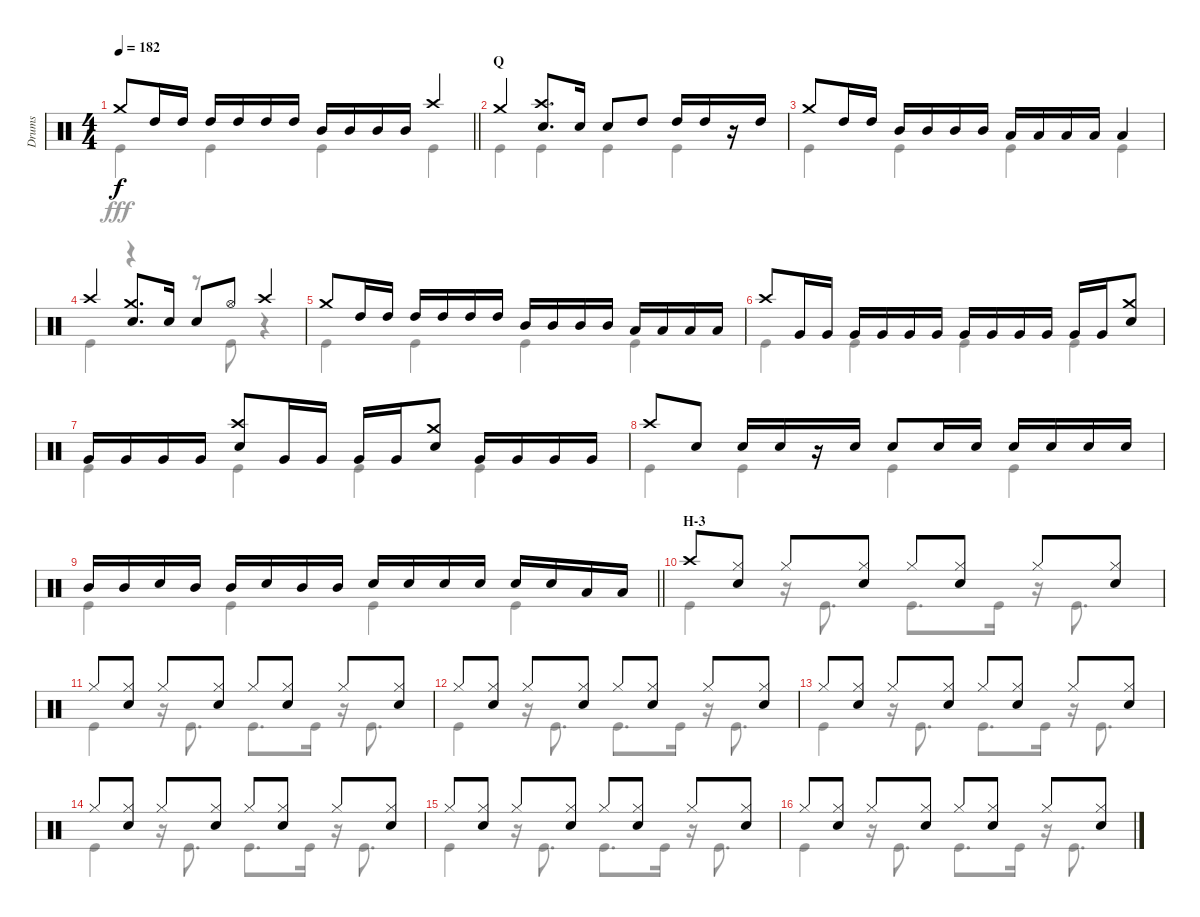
\track ("Drums" "Drums") {instrument percussion}
\staff {score}
\articulation defaults
\voice
\ts (4 4)
\tempo 182
\clef neutral
\barLineRight lightlight
\ks c "Crash medium (hit)".8{dy f} "High Tom (hit)".16 "High Tom (hit)".16 "High Tom (hit)".16 "High Tom (hit)".16 "High Tom (hit)".16 "High Tom (hit)".16 "Mid Tom (hit)".16 "Mid Tom (hit)".16 "Mid Tom (hit)".16 "Mid Tom (hit)".16 "Crash high (hit)".4
|
\section ("" "Q")
"Crash medium (hit)".4 ("Crash high (hit)" "Snare (hit) 2").8{d} "Snare (hit) 2".16 "Snare (hit) 2".8 "High Tom (hit)".8 "High Tom (hit)".16 "High Tom (hit)".16 r.16 "High Tom (hit)".16 |
"Crash medium (hit)".8 "High Tom (hit)".16 "High Tom (hit)".16 "Mid Tom (hit)".16 "Mid Tom (hit)".16 "Mid Tom (hit)".16 "Mid Tom (hit)".16 "Low Tom (hit)".16 "Low Tom (hit)".16 "Low Tom (hit)".16 "Low Tom (hit)".16 "Low Tom (hit)".4 |
"Crash high (hit)".4 ("Crash medium (hit)" "Snare (hit) 2").8{d} "Snare (hit) 2".16 "Snare (hit) 2".8 "Hi-Hat (open)".8 "Crash high (hit)".4 |
"Crash medium (hit)".8 "High Tom (hit)".16 "High Tom (hit)".16 "High Tom (hit)".16 "High Tom (hit)".16 "High Tom (hit)".16 "High Tom (hit)".16 "Mid Tom (hit)".16 "Mid Tom (hit)".16 "Mid Tom (hit)".16 "Mid Tom (hit)".16 "Low Tom (hit)".16 "Low Tom (hit)".16 "Low Tom (hit)".16 "Low Tom (hit)".16 |
"Crash high (hit)".8 "Very Low Tom (hit)".16 "Very Low Tom (hit)".16 "Very Low Tom (hit)".16 "Very Low Tom (hit)".16 "Very Low Tom (hit)".16 "Very Low Tom (hit)".16 "Very Low Tom (hit)".16 "Very Low Tom (hit)".16 "Very Low Tom (hit)".16 "Very Low Tom (hit)".16 "Very Low Tom (hit)".16 "Very Low Tom (hit)".16 ("Crash medium (hit)" "Snare (hit) 2").8 |
"Very Low Tom (hit)".16 "Very Low Tom (hit)".16 "Very Low Tom (hit)".16 "Very Low Tom (hit)".16 ("Crash high (hit)" "Snare (hit) 2").8 "Very Low Tom (hit)".16 "Very Low Tom (hit)".16 "Very Low Tom (hit)".16 "Very Low Tom (hit)".16 ("Crash medium (hit)" "Snare (hit) 2").8 "Very Low Tom (hit)".16 "Very Low Tom (hit)".16 "Very Low Tom (hit)".16 "Very Low Tom (hit)".16 |
"Crash high (hit)".8 "Snare (hit) 2".8 "Snare (hit) 2".16 "Snare (hit) 2".16 r.16 "Snare (hit) 2".16 "Snare (hit) 2".8 "Snare (hit) 2".16 "Snare (hit) 2".16 "Snare (hit) 2".16 "Snare (hit) 2".16 "Snare (hit) 2".16 "Snare (hit) 2".16 |
\barLineRight lightlight "Mid Tom (hit)".16 "Mid Tom (hit)".16 "Snare (hit) 2".16 "Mid Tom (hit)".16 "Mid Tom (hit)".16 "Snare (hit) 2".16 "Mid Tom (hit)".16 "Mid Tom (hit)".16 "Snare (hit) 2".16 "Snare (hit) 2".16 "Snare (hit) 2".16 "Snare (hit) 2".16 "Snare (hit) 2".16 "Snare (hit) 2".16 "Low Tom (hit)".16 "Low Tom (hit)".16
|
\section ("" "H-3")
"Crash high (hit)".8 ("Hi-Hat (closed)" "Snare (hit) 2").8 "Hi-Hat (closed)".8 ("Hi-Hat (closed)" "Snare (hit) 2").8 "Hi-Hat (closed)".8 ("Hi-Hat (closed)" "Snare (hit) 2").8 "Hi-Hat (closed)".8 ("Hi-Hat (closed)" "Snare (hit) 2").8 |
"Hi-Hat (closed)".8 ("Hi-Hat (closed)" "Snare (hit) 2").8 "Hi-Hat (closed)".8 ("Hi-Hat (closed)" "Snare (hit) 2").8 "Hi-Hat (closed)".8 ("Hi-Hat (closed)" "Snare (hit) 2").8 "Hi-Hat (closed)".8 ("Hi-Hat (closed)" "Snare (hit) 2").8 |
"Hi-Hat (closed)".8 ("Hi-Hat (closed)" "Snare (hit) 2").8 "Hi-Hat (closed)".8 ("Hi-Hat (closed)" "Snare (hit) 2").8 "Hi-Hat (closed)".8 ("Hi-Hat (closed)" "Snare (hit) 2").8 "Hi-Hat (closed)".8 ("Hi-Hat (closed)" "Snare (hit) 2").8 |
"Hi-Hat (closed)".8 ("Hi-Hat (closed)" "Snare (hit) 2").8 "Hi-Hat (closed)".8 ("Hi-Hat (closed)" "Snare (hit) 2").8 "Hi-Hat (closed)".8 ("Hi-Hat (closed)" "Snare (hit) 2").8 "Hi-Hat (closed)".8 ("Hi-Hat (closed)" "Snare (hit) 2").8 |
"Hi-Hat (closed)".8 ("Hi-Hat (closed)" "Snare (hit) 2").8 "Hi-Hat (closed)".8 ("Hi-Hat (closed)" "Snare (hit) 2").8 "Hi-Hat (closed)".8 ("Hi-Hat (closed)" "Snare (hit) 2").8 "Hi-Hat (closed)".8 ("Hi-Hat (closed)" "Snare (hit) 2").8 |
"Hi-Hat (closed)".8 ("Hi-Hat (closed)" "Snare (hit) 2").8 "Hi-Hat (closed)".8 ("Hi-Hat (closed)" "Snare (hit) 2").8 "Hi-Hat (closed)".8 ("Hi-Hat (closed)" "Snare (hit) 2").8 "Hi-Hat (closed)".8 ("Hi-Hat (closed)" "Snare (hit) 2").8 |
"Hi-Hat (closed)".8 ("Hi-Hat (closed)" "Snare (hit) 2").8 "Hi-Hat (closed)".8 ("Hi-Hat (closed)" "Snare (hit) 2").8 "Hi-Hat (closed)".8 ("Hi-Hat (closed)" "Snare (hit) 2").8 "Hi-Hat (closed)".8 ("Hi-Hat (closed)" "Snare (hit) 2").8
\voice
\clef neutral
\ottava regular
\simile none
\barLineRight lightlight
\ks c "Kick (hit)".4{dy fff} "Kick (hit)".4 "Kick (hit)".4 "Kick (hit)".4
|
"Kick (hit)".4 "Kick (hit)".4 "Kick (hit)".4 "Kick (hit)".4 |
"Kick (hit)".4 "Kick (hit)".4 "Kick (hit)".4 "Kick (hit)".4 |
"Kick (hit)".4 r.4 r.8 "Kick (hit)".8 r.4 |
"Kick (hit)".4 "Kick (hit)".4 "Kick (hit)".4 "Kick (hit)".4 |
"Kick (hit)".4 "Kick (hit)".4 "Kick (hit)".4 "Kick (hit)".4 |
"Kick (hit)".4 "Kick (hit)".4 "Kick (hit)".4 "Kick (hit)".4 |
"Kick (hit)".4 "Kick (hit)".4 "Kick (hit)".4 "Kick (hit)".4 |
\barLineRight lightlight "Kick (hit)".4 "Kick (hit)".4 "Kick (hit)".4 "Kick (hit)".4
|
"Kick (hit)".4 r.16 "Kick (hit)".8{d} "Kick (hit)".8{d} "Kick (hit)".16 r.16 "Kick (hit)".8{d} |
"Kick (hit)".4 r.16 "Kick (hit)".8{d} "Kick (hit)".8{d} "Kick (hit)".16 r.16 "Kick (hit)".8{d} |
"Kick (hit)".4 r.16 "Kick (hit)".8{d} "Kick (hit)".8{d} "Kick (hit)".16 r.16 "Kick (hit)".8{d} |
"Kick (hit)".4 r.16 "Kick (hit)".8{d} "Kick (hit)".8{d} "Kick (hit)".16 r.16 "Kick (hit)".8{d} |
"Kick (hit)".4 r.16 "Kick (hit)".8{d} "Kick (hit)".8{d} "Kick (hit)".16 r.16 "Kick (hit)".8{d} |
"Kick (hit)".4 r.16 "Kick (hit)".8{d} "Kick (hit)".8{d} "Kick (hit)".16 r.16 "Kick (hit)".8{d} |
"Kick (hit)".4 r.16 "Kick (hit)".8{d} "Kick (hit)".8{d} "Kick (hit)".16 r.16 "Kick (hit)".8{d}
